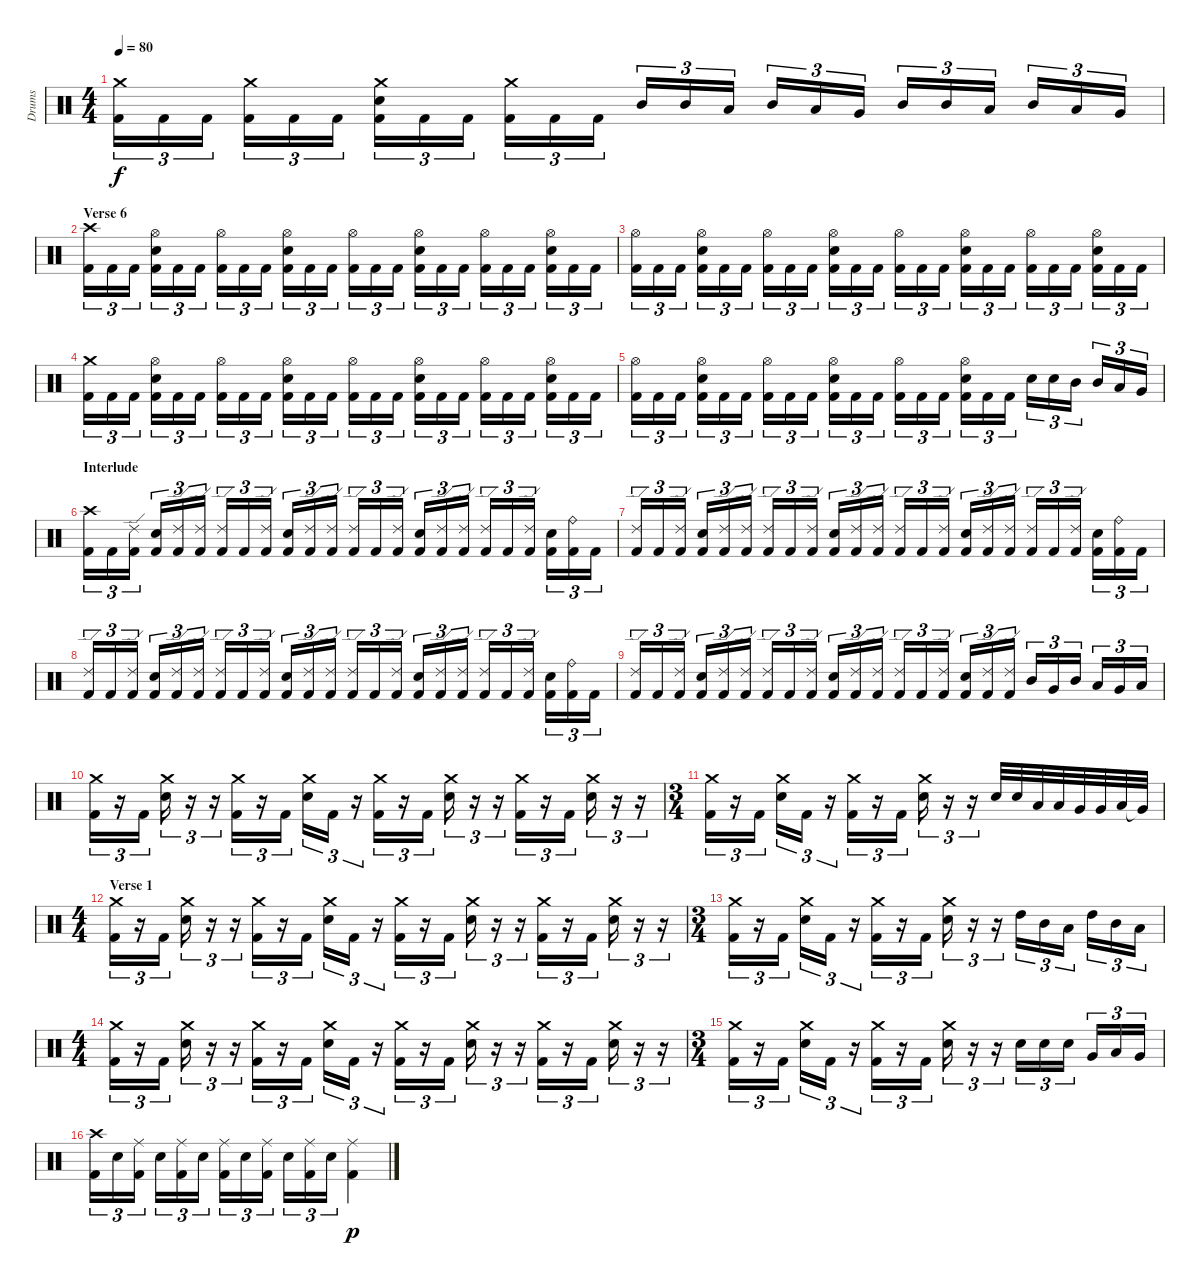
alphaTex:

\track ("Drums" "Drums") {instrument percussion}
\staff {score}
\articulation defaults
\ts (4 4)
\tempo 80
\clef neutral
\ks c
("Crash medium (hit)" "Kick (hit) 2").16{tu (3 2) dy f} "Kick (hit) 2".16{tu (3 2)} "Kick (hit) 2".16{tu (3 2)} ("Crash medium (hit)" "Kick (hit) 2").16{tu (3 2)} "Kick (hit) 2".16{tu (3 2)} "Kick (hit) 2".16{tu (3 2)} ("Crash medium (hit)" "Electric Snare (hit)" "Kick (hit) 2").16{tu (3 2)} "Kick (hit) 2".16{tu (3 2)} "Kick (hit) 2".16{tu (3 2)} ("Crash medium (hit)" "Kick (hit) 2").16{tu (3 2)} "Kick (hit) 2".16{tu (3 2)} "Kick (hit) 2".16{tu (3 2)} "Mid Tom (hit)".16{tu (3 2)} "Mid Tom (hit)".16{tu (3 2)} "Low Tom (hit)".16{tu (3 2)} "Mid Tom (hit)".16{tu (3 2)} "Low Tom (hit)".16{tu (3 2)} "Very Low Tom (hit)".16{tu (3 2)} "Mid Tom (hit)".16{tu (3 2)} "Mid Tom (hit)".16{tu (3 2)} "Low Tom (hit)".16{tu (3 2)} "Mid Tom (hit)".16{tu (3 2)} "Low Tom (hit)".16{tu (3 2)} "Very Low Tom (hit)".16{tu (3 2)} |
\section ("" "Verse 6")
("Crash high (hit)" "Kick (hit) 2").16{tu (3 2)} "Kick (hit) 2".16{tu (3 2)} "Kick (hit) 2".16{tu (3 2)} ("Hi-Hat (open)" "Electric Snare (hit)" "Kick (hit) 2").16{tu (3 2)} "Kick (hit) 2".16{tu (3 2)} "Kick (hit) 2".16{tu (3 2)} ("Hi-Hat (open)" "Kick (hit) 2").16{tu (3 2)} "Kick (hit) 2".16{tu (3 2)} "Kick (hit) 2".16{tu (3 2)} ("Hi-Hat (open)" "Electric Snare (hit)" "Kick (hit) 2").16{tu (3 2)} "Kick (hit) 2".16{tu (3 2)} "Kick (hit) 2".16{tu (3 2)} ("Hi-Hat (open)" "Kick (hit) 2").16{tu (3 2)} "Kick (hit) 2".16{tu (3 2)} "Kick (hit) 2".16{tu (3 2)} ("Hi-Hat (open)" "Electric Snare (hit)" "Kick (hit) 2").16{tu (3 2)} "Kick (hit) 2".16{tu (3 2)} "Kick (hit) 2".16{tu (3 2)} ("Hi-Hat (open)" "Kick (hit) 2").16{tu (3 2)} "Kick (hit) 2".16{tu (3 2)} "Kick (hit) 2".16{tu (3 2)} ("Hi-Hat (open)" "Electric Snare (hit)" "Kick (hit) 2").16{tu (3 2)} "Kick (hit) 2".16{tu (3 2)} "Kick (hit) 2".16{tu (3 2)} |
("Hi-Hat (open)" "Kick (hit) 2").16{tu (3 2)} "Kick (hit) 2".16{tu (3 2)} "Kick (hit) 2".16{tu (3 2)} ("Hi-Hat (open)" "Electric Snare (hit)" "Kick (hit) 2").16{tu (3 2)} "Kick (hit) 2".16{tu (3 2)} "Kick (hit) 2".16{tu (3 2)} ("Hi-Hat (open)" "Kick (hit) 2").16{tu (3 2)} "Kick (hit) 2".16{tu (3 2)} "Kick (hit) 2".16{tu (3 2)} ("Hi-Hat (open)" "Electric Snare (hit)" "Kick (hit) 2").16{tu (3 2)} "Kick (hit) 2".16{tu (3 2)} "Kick (hit) 2".16{tu (3 2)} ("Hi-Hat (open)" "Kick (hit) 2").16{tu (3 2)} "Kick (hit) 2".16{tu (3 2)} "Kick (hit) 2".16{tu (3 2)} ("Hi-Hat (open)" "Electric Snare (hit)" "Kick (hit) 2").16{tu (3 2)} "Kick (hit) 2".16{tu (3 2)} "Kick (hit) 2".16{tu (3 2)} ("Hi-Hat (open)" "Kick (hit) 2").16{tu (3 2)} "Kick (hit) 2".16{tu (3 2)} "Kick (hit) 2".16{tu (3 2)} ("Hi-Hat (open)" "Electric Snare (hit)" "Kick (hit) 2").16{tu (3 2)} "Kick (hit) 2".16{tu (3 2)} "Kick (hit) 2".16{tu (3 2)} |
("Crash medium (hit)" "Kick (hit) 2").16{tu (3 2)} "Kick (hit) 2".16{tu (3 2)} "Kick (hit) 2".16{tu (3 2)} ("Hi-Hat (open)" "Electric Snare (hit)" "Kick (hit) 2").16{tu (3 2)} "Kick (hit) 2".16{tu (3 2)} "Kick (hit) 2".16{tu (3 2)} ("Hi-Hat (open)" "Kick (hit) 2").16{tu (3 2)} "Kick (hit) 2".16{tu (3 2)} "Kick (hit) 2".16{tu (3 2)} ("Hi-Hat (open)" "Electric Snare (hit)" "Kick (hit) 2").16{tu (3 2)} "Kick (hit) 2".16{tu (3 2)} "Kick (hit) 2".16{tu (3 2)} ("Hi-Hat (open)" "Kick (hit) 2").16{tu (3 2)} "Kick (hit) 2".16{tu (3 2)} "Kick (hit) 2".16{tu (3 2)} ("Hi-Hat (open)" "Electric Snare (hit)" "Kick (hit) 2").16{tu (3 2)} "Kick (hit) 2".16{tu (3 2)} "Kick (hit) 2".16{tu (3 2)} ("Hi-Hat (open)" "Kick (hit) 2").16{tu (3 2)} "Kick (hit) 2".16{tu (3 2)} "Kick (hit) 2".16{tu (3 2)} ("Hi-Hat (open)" "Electric Snare (hit)" "Kick (hit) 2").16{tu (3 2)} "Kick (hit) 2".16{tu (3 2)} "Kick (hit) 2".16{tu (3 2)} |
("Hi-Hat (open)" "Kick (hit) 2").16{tu (3 2)} "Kick (hit) 2".16{tu (3 2)} "Kick (hit) 2".16{tu (3 2)} ("Hi-Hat (open)" "Electric Snare (hit)" "Kick (hit) 2").16{tu (3 2)} "Kick (hit) 2".16{tu (3 2)} "Kick (hit) 2".16{tu (3 2)} ("Hi-Hat (open)" "Kick (hit) 2").16{tu (3 2)} "Kick (hit) 2".16{tu (3 2)} "Kick (hit) 2".16{tu (3 2)} ("Hi-Hat (open)" "Electric Snare (hit)" "Kick (hit) 2").16{tu (3 2)} "Kick (hit) 2".16{tu (3 2)} "Kick (hit) 2".16{tu (3 2)} ("Hi-Hat (open)" "Kick (hit) 2").16{tu (3 2)} "Kick (hit) 2".16{tu (3 2)} "Kick (hit) 2".16{tu (3 2)} ("Hi-Hat (open)" "Electric Snare (hit)" "Kick (hit) 2").16{tu (3 2)} "Kick (hit) 2".16{tu (3 2)} "Kick (hit) 2".16{tu (3 2)} "Electric Snare (hit)".16{tu (3 2)} "Electric Snare (hit)".16{tu (3 2)} "Mid Tom (hit)".16{tu (3 2)} "Mid Tom (hit)".16{tu (3 2)} "Low Tom (hit)".16{tu (3 2)} "Very Low Tom (hit)".16{tu (3 2)} |
\section ("" "Interlude")
("Crash high (hit)" "Kick (hit) 2").16{tu (3 2)} "Kick (hit) 2".16{tu (3 2)} ("Ride (edge) 2" "Kick (hit) 2").16{tu (3 2)} ("Electric Snare (hit)" "Kick (hit) 2").16{tu (3 2)} ("Ride (edge) 2" "Kick (hit) 2").16{tu (3 2)} ("Ride (edge) 2" "Kick (hit) 2").16{tu (3 2)} ("Ride (edge) 2" "Kick (hit) 2").16{tu (3 2)} "Kick (hit) 2".16{tu (3 2)} ("Ride (edge) 2" "Kick (hit) 2").16{tu (3 2)} ("Electric Snare (hit)" "Kick (hit) 2").16{tu (3 2)} ("Ride (edge) 2" "Kick (hit) 2").16{tu (3 2)} ("Ride (edge) 2" "Kick (hit) 2").16{tu (3 2)} ("Ride (edge) 2" "Kick (hit) 2").16{tu (3 2)} "Kick (hit) 2".16{tu (3 2)} ("Ride (edge) 2" "Kick (hit) 2").16{tu (3 2)} ("Electric Snare (hit)" "Kick (hit) 2").16{tu (3 2)} ("Ride (edge) 2" "Kick (hit) 2").16{tu (3 2)} ("Ride (edge) 2" "Kick (hit) 2").16{tu (3 2)} ("Ride (edge) 2" "Kick (hit) 2").16{tu (3 2)} "Kick (hit) 2".16{tu (3 2)} ("Ride (edge) 2" "Kick (hit) 2").16{tu (3 2)} ("Electric Snare (hit)" "Kick (hit) 2").16{tu (3 2)} ("Ride (bell)" "Kick (hit) 2").16{tu (3 2)} "Kick (hit) 2".16{tu (3 2)} |
("Ride (edge) 2" "Kick (hit) 2").16{tu (3 2)} "Kick (hit) 2".16{tu (3 2)} ("Ride (edge) 2" "Kick (hit) 2").16{tu (3 2)} ("Electric Snare (hit)" "Kick (hit) 2").16{tu (3 2)} ("Ride (edge) 2" "Kick (hit) 2").16{tu (3 2)} ("Ride (edge) 2" "Kick (hit) 2").16{tu (3 2)} ("Ride (edge) 2" "Kick (hit) 2").16{tu (3 2)} "Kick (hit) 2".16{tu (3 2)} ("Ride (edge) 2" "Kick (hit) 2").16{tu (3 2)} ("Electric Snare (hit)" "Kick (hit) 2").16{tu (3 2)} ("Ride (edge) 2" "Kick (hit) 2").16{tu (3 2)} ("Ride (edge) 2" "Kick (hit) 2").16{tu (3 2)} ("Ride (edge) 2" "Kick (hit) 2").16{tu (3 2)} "Kick (hit) 2".16{tu (3 2)} ("Ride (edge) 2" "Kick (hit) 2").16{tu (3 2)} ("Electric Snare (hit)" "Kick (hit) 2").16{tu (3 2)} ("Ride (edge) 2" "Kick (hit) 2").16{tu (3 2)} ("Ride (edge) 2" "Kick (hit) 2").16{tu (3 2)} ("Ride (edge) 2" "Kick (hit) 2").16{tu (3 2)} "Kick (hit) 2".16{tu (3 2)} ("Ride (edge) 2" "Kick (hit) 2").16{tu (3 2)} ("Electric Snare (hit)" "Kick (hit) 2").16{tu (3 2)} ("Ride (bell)" "Kick (hit) 2").16{tu (3 2)} "Kick (hit) 2".16{tu (3 2)} |
("Ride (edge) 2" "Kick (hit) 2").16{tu (3 2)} "Kick (hit) 2".16{tu (3 2)} ("Ride (edge) 2" "Kick (hit) 2").16{tu (3 2)} ("Electric Snare (hit)" "Kick (hit) 2").16{tu (3 2)} ("Ride (edge) 2" "Kick (hit) 2").16{tu (3 2)} ("Ride (edge) 2" "Kick (hit) 2").16{tu (3 2)} ("Ride (edge) 2" "Kick (hit) 2").16{tu (3 2)} "Kick (hit) 2".16{tu (3 2)} ("Ride (edge) 2" "Kick (hit) 2").16{tu (3 2)} ("Electric Snare (hit)" "Kick (hit) 2").16{tu (3 2)} ("Ride (edge) 2" "Kick (hit) 2").16{tu (3 2)} ("Ride (edge) 2" "Kick (hit) 2").16{tu (3 2)} ("Ride (edge) 2" "Kick (hit) 2").16{tu (3 2)} "Kick (hit) 2".16{tu (3 2)} ("Ride (edge) 2" "Kick (hit) 2").16{tu (3 2)} ("Electric Snare (hit)" "Kick (hit) 2").16{tu (3 2)} ("Ride (edge) 2" "Kick (hit) 2").16{tu (3 2)} ("Ride (edge) 2" "Kick (hit) 2").16{tu (3 2)} ("Ride (edge) 2" "Kick (hit) 2").16{tu (3 2)} "Kick (hit) 2".16{tu (3 2)} ("Ride (edge) 2" "Kick (hit) 2").16{tu (3 2)} ("Electric Snare (hit)" "Kick (hit) 2").16{tu (3 2)} ("Ride (bell)" "Kick (hit) 2").16{tu (3 2)} "Kick (hit) 2".16{tu (3 2)} |
("Ride (edge) 2" "Kick (hit) 2").16{tu (3 2)} "Kick (hit) 2".16{tu (3 2)} ("Ride (edge) 2" "Kick (hit) 2").16{tu (3 2)} ("Electric Snare (hit)" "Kick (hit) 2").16{tu (3 2)} ("Ride (edge) 2" "Kick (hit) 2").16{tu (3 2)} ("Ride (edge) 2" "Kick (hit) 2").16{tu (3 2)} ("Ride (edge) 2" "Kick (hit) 2").16{tu (3 2)} "Kick (hit) 2".16{tu (3 2)} ("Ride (edge) 2" "Kick (hit) 2").16{tu (3 2)} ("Electric Snare (hit)" "Kick (hit) 2").16{tu (3 2)} ("Ride (edge) 2" "Kick (hit) 2").16{tu (3 2)} ("Ride (edge) 2" "Kick (hit) 2").16{tu (3 2)} ("Ride (edge) 2" "Kick (hit) 2").16{tu (3 2)} "Kick (hit) 2".16{tu (3 2)} ("Ride (edge) 2" "Kick (hit) 2").16{tu (3 2)} ("Electric Snare (hit)" "Kick (hit) 2").16{tu (3 2)} ("Ride (edge) 2" "Kick (hit) 2").16{tu (3 2)} ("Ride (edge) 2" "Kick (hit) 2").16{tu (3 2)} "Mid Tom (hit)".16{tu (3 2)} "Very Low Tom (hit)".16{tu (3 2)} "Mid Tom (hit)".16{tu (3 2)} "Low Tom (hit)".16{tu (3 2)} "Very Low Tom (hit)".16{tu (3 2)} "Low Floor Tom (hit)".16{tu (3 2)} |
("Crash medium (hit)" "Kick (hit) 2").16{tu (3 2)} r.16{tu (3 2)} "Kick (hit) 2".16{tu (3 2)} ("Crash medium (hit)" "Electric Snare (hit)").16{tu (3 2)} r.16{tu (3 2)} r.16{tu (3 2)} ("Crash medium (hit)" "Kick (hit) 2").16{tu (3 2)} r.16{tu (3 2)} "Kick (hit) 2".16{tu (3 2)} ("Crash medium (hit)" "Electric Snare (hit)").16{tu (3 2)} "Kick (hit) 2".16{tu (3 2)} r.16{tu (3 2)} ("Crash medium (hit)" "Kick (hit) 2").16{tu (3 2)} r.16{tu (3 2)} "Kick (hit) 2".16{tu (3 2)} ("Crash medium (hit)" "Electric Snare (hit)").16{tu (3 2)} r.16{tu (3 2)} r.16{tu (3 2)} ("Crash medium (hit)" "Kick (hit) 2").16{tu (3 2)} r.16{tu (3 2)} "Kick (hit) 2".16{tu (3 2)} ("Crash medium (hit)" "Electric Snare (hit)").16{tu (3 2)} r.16{tu (3 2)} r.16{tu (3 2)} |
\ts (3 4)
("Crash medium (hit)" "Kick (hit) 2").16{tu (3 2)} r.16{tu (3 2)} "Kick (hit) 2".16{tu (3 2)} ("Crash medium (hit)" "Electric Snare (hit)").16{tu (3 2)} "Kick (hit) 2".16{tu (3 2)} r.16{tu (3 2)} ("Crash medium (hit)" "Kick (hit) 2").16{tu (3 2)} r.16{tu (3 2)} "Kick (hit) 2".16{tu (3 2)} ("Crash medium (hit)" "Electric Snare (hit)").16{tu (3 2)} r.16{tu (3 2)} r.16{tu (3 2)} "Electric Snare (hit)".32 "Electric Snare (hit)".32 "Low Tom (hit)".32 "Low Tom (hit)".32 "Very Low Tom (hit)".32 "Very Low Tom (hit)".32 "Low Floor Tom (hit)".32 "Very Low Tom (hit)"{t}.32 |
\ts (4 4)
\section ("" "Verse 1")
("Crash medium (hit)" "Kick (hit) 2").16{tu (3 2)} r.16{tu (3 2)} "Kick (hit) 2".16{tu (3 2)} ("Crash medium (hit)" "Electric Snare (hit)").16{tu (3 2)} r.16{tu (3 2)} r.16{tu (3 2)} ("Crash medium (hit)" "Kick (hit) 2").16{tu (3 2)} r.16{tu (3 2)} "Kick (hit) 2".16{tu (3 2)} ("Crash medium (hit)" "Electric Snare (hit)").16{tu (3 2)} "Kick (hit) 2".16{tu (3 2)} r.16{tu (3 2)} ("Crash medium (hit)" "Kick (hit) 2").16{tu (3 2)} r.16{tu (3 2)} "Kick (hit) 2".16{tu (3 2)} ("Crash medium (hit)" "Electric Snare (hit)").16{tu (3 2)} r.16{tu (3 2)} r.16{tu (3 2)} ("Crash medium (hit)" "Kick (hit) 2").16{tu (3 2)} r.16{tu (3 2)} "Kick (hit) 2".16{tu (3 2)} ("Crash medium (hit)" "Electric Snare (hit)").16{tu (3 2)} r.16{tu (3 2)} r.16{tu (3 2)} |
\ts (3 4)
("Crash medium (hit)" "Kick (hit) 2").16{tu (3 2)} r.16{tu (3 2)} "Kick (hit) 2".16{tu (3 2)} ("Crash medium (hit)" "Electric Snare (hit)").16{tu (3 2)} "Kick (hit) 2".16{tu (3 2)} r.16{tu (3 2)} ("Crash medium (hit)" "Kick (hit) 2").16{tu (3 2)} r.16{tu (3 2)} "Kick (hit) 2".16{tu (3 2)} ("Crash medium (hit)" "Electric Snare (hit)").16{tu (3 2)} r.16{tu (3 2)} r.16{tu (3 2)} "High Tom (hit)".16{tu (3 2)} "Mid Tom (hit)".16{tu (3 2)} "Low Tom (hit)".16{tu (3 2)} "High Tom (hit)".16{tu (3 2)} "Mid Tom (hit)".16{tu (3 2)} "Low Tom (hit)".16{tu (3 2)} |
\ts (4 4)
("Crash medium (hit)" "Kick (hit) 2").16{tu (3 2)} r.16{tu (3 2)} "Kick (hit) 2".16{tu (3 2)} ("Crash medium (hit)" "Electric Snare (hit)").16{tu (3 2)} r.16{tu (3 2)} r.16{tu (3 2)} ("Crash medium (hit)" "Kick (hit) 2").16{tu (3 2)} r.16{tu (3 2)} "Kick (hit) 2".16{tu (3 2)} ("Crash medium (hit)" "Electric Snare (hit)").16{tu (3 2)} "Kick (hit) 2".16{tu (3 2)} r.16{tu (3 2)} ("Crash medium (hit)" "Kick (hit) 2").16{tu (3 2)} r.16{tu (3 2)} "Kick (hit) 2".16{tu (3 2)} ("Crash medium (hit)" "Electric Snare (hit)").16{tu (3 2)} r.16{tu (3 2)} r.16{tu (3 2)} ("Crash medium (hit)" "Kick (hit) 2").16{tu (3 2)} r.16{tu (3 2)} "Kick (hit) 2".16{tu (3 2)} ("Crash medium (hit)" "Electric Snare (hit)").16{tu (3 2)} r.16{tu (3 2)} r.16{tu (3 2)} |
\ts (3 4)
("Crash medium (hit)" "Kick (hit) 2").16{tu (3 2)} r.16{tu (3 2)} "Kick (hit) 2".16{tu (3 2)} ("Crash medium (hit)" "Electric Snare (hit)").16{tu (3 2)} "Kick (hit) 2".16{tu (3 2)} r.16{tu (3 2)} ("Crash medium (hit)" "Kick (hit) 2").16{tu (3 2)} r.16{tu (3 2)} "Kick (hit) 2".16{tu (3 2)} ("Crash medium (hit)" "Electric Snare (hit)").16{tu (3 2)} r.16{tu (3 2)} r.16{tu (3 2)} "Electric Snare (hit)".16{tu (3 2)} "Electric Snare (hit)".16{tu (3 2)} "Electric Snare (hit)".16{tu (3 2)} "Very Low Tom (hit)".16{tu (3 2)} "Low Tom (hit)".16{tu (3 2)} "Very Low Tom (hit)".16{tu (3 2)} |
("Crash high (hit)" "Kick (hit) 2").16{tu (3 2)} "Electric Snare (hit)".16{tu (3 2)} ("Ride (middle)" "Kick (hit) 2").16{tu (3 2)} "Electric Snare (hit)".16{tu (3 2)} ("Ride (middle)" "Kick (hit) 2").16{tu (3 2)} "Electric Snare (hit)".16{tu (3 2)} ("Ride (middle)" "Kick (hit) 2").16{tu (3 2)} "Electric Snare (hit)".16{tu (3 2)} ("Ride (middle)" "Kick (hit) 2").16{tu (3 2)} "Electric Snare (hit)".16{tu (3 2)} ("Ride (middle)" "Kick (hit) 2").16{tu (3 2)} "Electric Snare (hit)".16{tu (3 2)} ("Ride (middle)" "Kick (hit) 2").4{dy p}
